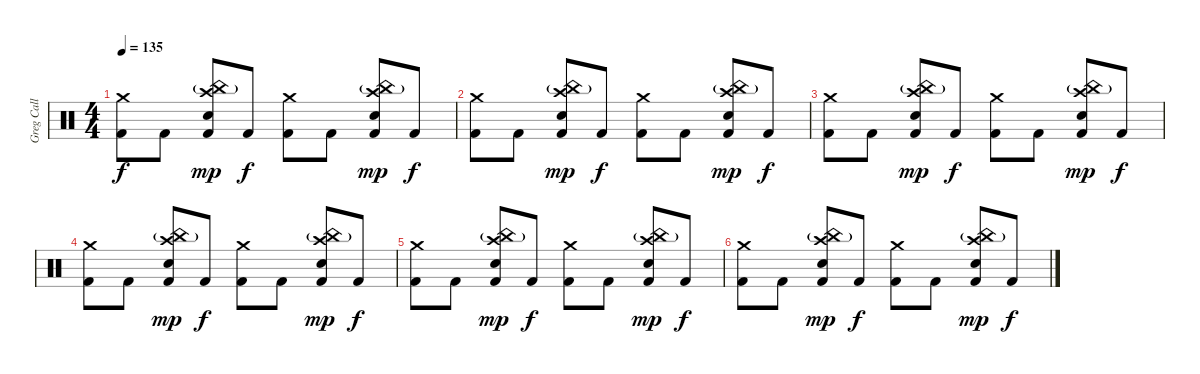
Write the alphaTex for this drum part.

\track ("Greg Call (Drums)" "Greg Call ") {instrument percussion}
\staff {score}
\articulation defaults
\ts (4 4)
\tempo 135
\clef neutral
\ks c
("Crash medium (hit)" "Kick (hit) 2").8{dy f volume 8} "Kick (hit) 2".8 ("China (hit)"{g} "Crash high (hit)" "Snare (hit) 2" "Kick (hit) 2").8{dy mp} "Kick (hit) 2".8{dy f} ("Crash medium (hit)" "Kick (hit) 2").8 "Kick (hit) 2".8 ("China (hit)"{g} "Crash high (hit)" "Snare (hit) 2" "Kick (hit) 2").8{dy mp} "Kick (hit) 2".8{dy f} |
("Crash medium (hit)" "Kick (hit) 2").8 "Kick (hit) 2".8 ("China (hit)"{g} "Crash high (hit)" "Snare (hit) 2" "Kick (hit) 2").8{dy mp} "Kick (hit) 2".8{dy f} ("Crash medium (hit)" "Kick (hit) 2").8 "Kick (hit) 2".8 ("China (hit)"{g} "Crash high (hit)" "Snare (hit) 2" "Kick (hit) 2").8{dy mp} "Kick (hit) 2".8{dy f} |
("Crash medium (hit)" "Kick (hit) 2").8{volume 6} "Kick (hit) 2".8 ("China (hit)"{g} "Crash high (hit)" "Snare (hit) 2" "Kick (hit) 2").8{dy mp} "Kick (hit) 2".8{dy f} ("Crash medium (hit)" "Kick (hit) 2").8 "Kick (hit) 2".8 ("China (hit)"{g} "Crash high (hit)" "Snare (hit) 2" "Kick (hit) 2").8{dy mp} "Kick (hit) 2".8{dy f} |
("Crash medium (hit)" "Kick (hit) 2").8{volume 4} "Kick (hit) 2".8 ("China (hit)"{g} "Crash high (hit)" "Snare (hit) 2" "Kick (hit) 2").8{dy mp} "Kick (hit) 2".8{dy f} ("Crash medium (hit)" "Kick (hit) 2").8 "Kick (hit) 2".8 ("China (hit)"{g} "Crash high (hit)" "Snare (hit) 2" "Kick (hit) 2").8{dy mp} "Kick (hit) 2".8{dy f} |
("Crash medium (hit)" "Kick (hit) 2").8{volume 0} "Kick (hit) 2".8 ("China (hit)"{g} "Crash high (hit)" "Snare (hit) 2" "Kick (hit) 2").8{dy mp} "Kick (hit) 2".8{dy f} ("Crash medium (hit)" "Kick (hit) 2").8 "Kick (hit) 2".8 ("China (hit)"{g} "Crash high (hit)" "Snare (hit) 2" "Kick (hit) 2").8{dy mp} "Kick (hit) 2".8{dy f} |
("Crash medium (hit)" "Kick (hit) 2").8 "Kick (hit) 2".8 ("China (hit)"{g} "Crash high (hit)" "Snare (hit) 2" "Kick (hit) 2").8{dy mp} "Kick (hit) 2".8{dy f} ("Crash medium (hit)" "Kick (hit) 2").8 "Kick (hit) 2".8 ("China (hit)"{g} "Crash high (hit)" "Snare (hit) 2" "Kick (hit) 2").8{dy mp} "Kick (hit) 2".8{dy f}
